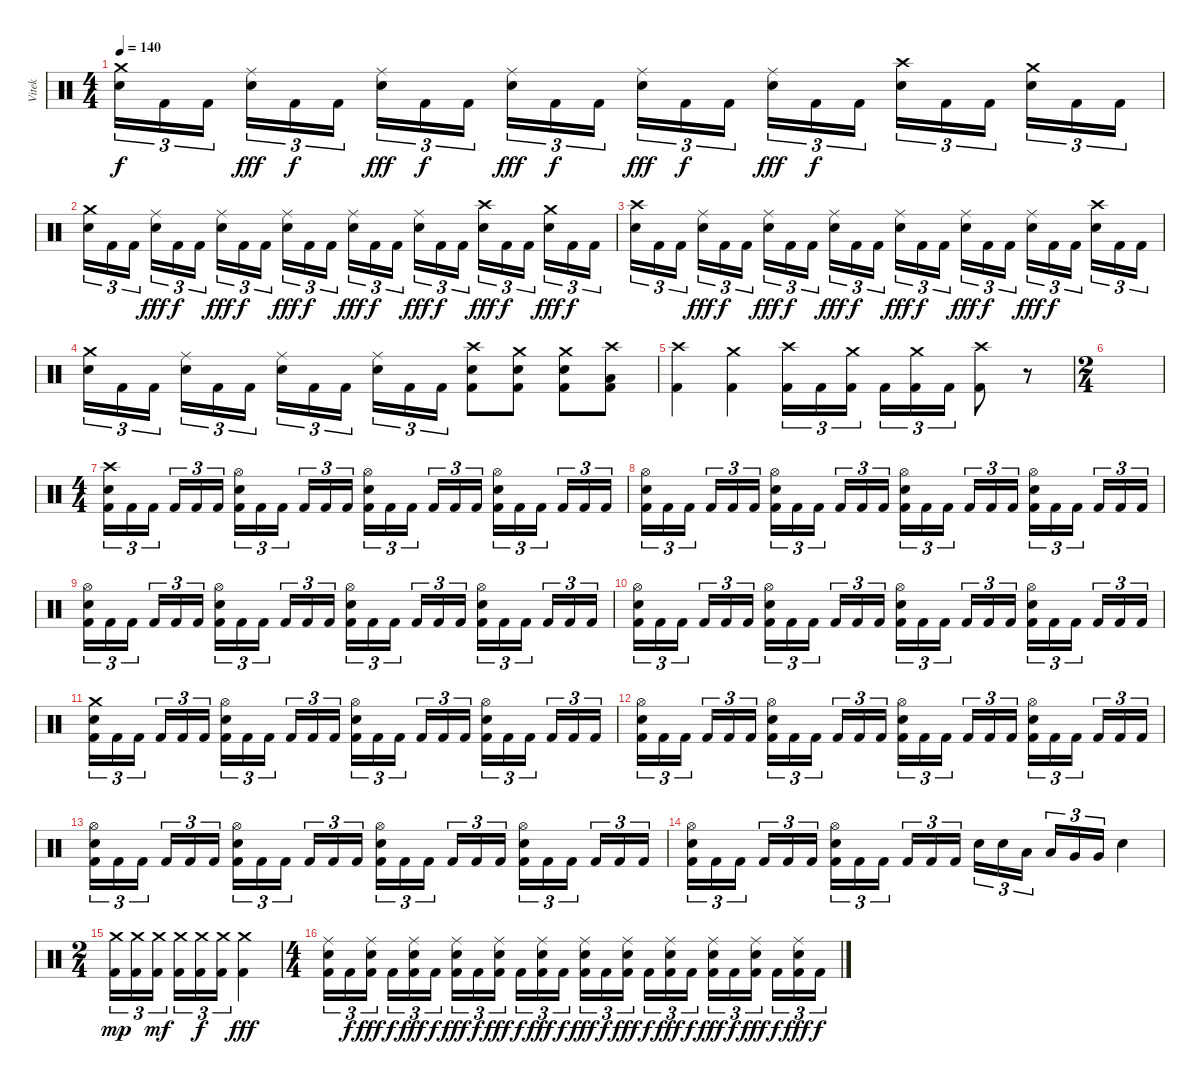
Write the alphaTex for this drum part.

\track ("Vitek" "Vitek") {instrument percussion}
\staff {score}
\articulation defaults
\ts (4 4)
\tempo 140
\clef neutral
\ks c
("Crash medium (hit)" "Electric Snare (hit)").16{tu (3 2) dy f} "Kick (hit) 2".16{tu (3 2)} "Kick (hit) 2".16{tu (3 2)} ("Ride (middle)" "Electric Snare (hit)").16{tu (3 2) dy fff} "Kick (hit) 2".16{tu (3 2) dy f} "Kick (hit) 2".16{tu (3 2)} ("Ride (middle)" "Electric Snare (hit)").16{tu (3 2) dy fff} "Kick (hit) 2".16{tu (3 2) dy f} "Kick (hit) 2".16{tu (3 2)} ("Ride (middle)" "Electric Snare (hit)").16{tu (3 2) dy fff} "Kick (hit) 2".16{tu (3 2) dy f} "Kick (hit) 2".16{tu (3 2)} ("Ride (middle)" "Electric Snare (hit)").16{tu (3 2) dy fff} "Kick (hit) 2".16{tu (3 2) dy f} "Kick (hit) 2".16{tu (3 2)} ("Ride (middle)" "Electric Snare (hit)").16{tu (3 2) dy fff} "Kick (hit) 2".16{tu (3 2) dy f} "Kick (hit) 2".16{tu (3 2)} ("Crash high (hit)" "Electric Snare (hit)").16{tu (3 2)} "Kick (hit) 2".16{tu (3 2)} "Kick (hit) 2".16{tu (3 2)} ("Crash medium (hit)" "Electric Snare (hit)").16{tu (3 2)} "Kick (hit) 2".16{tu (3 2)} "Kick (hit) 2".16{tu (3 2)} |
("Crash medium (hit)" "Electric Snare (hit)").16{tu (3 2)} "Kick (hit) 2".16{tu (3 2)} "Kick (hit) 2".16{tu (3 2)} ("Ride (middle)" "Electric Snare (hit)").16{tu (3 2) dy fff} "Kick (hit) 2".16{tu (3 2) dy f} "Kick (hit) 2".16{tu (3 2)} ("Ride (middle)" "Electric Snare (hit)").16{tu (3 2) dy fff} "Kick (hit) 2".16{tu (3 2) dy f} "Kick (hit) 2".16{tu (3 2)} ("Ride (middle)" "Electric Snare (hit)").16{tu (3 2) dy fff} "Kick (hit) 2".16{tu (3 2) dy f} "Kick (hit) 2".16{tu (3 2)} ("Ride (middle)" "Electric Snare (hit)").16{tu (3 2) dy fff} "Kick (hit) 2".16{tu (3 2) dy f} "Kick (hit) 2".16{tu (3 2)} ("Ride (middle)" "Electric Snare (hit)").16{tu (3 2) dy fff} "Kick (hit) 2".16{tu (3 2) dy f} "Kick (hit) 2".16{tu (3 2)} ("Crash high (hit)" "Electric Snare (hit)").16{tu (3 2) dy fff} "Kick (hit) 2".16{tu (3 2) dy f} "Kick (hit) 2".16{tu (3 2)} ("Crash medium (hit)" "Electric Snare (hit)").16{tu (3 2) dy fff} "Kick (hit) 2".16{tu (3 2) dy f} "Kick (hit) 2".16{tu (3 2)} |
("Crash high (hit)" "Electric Snare (hit)").16{tu (3 2)} "Kick (hit) 2".16{tu (3 2)} "Kick (hit) 2".16{tu (3 2)} ("Ride (middle)" "Electric Snare (hit)").16{tu (3 2) dy fff} "Kick (hit) 2".16{tu (3 2) dy f} "Kick (hit) 2".16{tu (3 2)} ("Ride (middle)" "Electric Snare (hit)").16{tu (3 2) dy fff} "Kick (hit) 2".16{tu (3 2) dy f} "Kick (hit) 2".16{tu (3 2)} ("Ride (middle)" "Electric Snare (hit)").16{tu (3 2) dy fff} "Kick (hit) 2".16{tu (3 2) dy f} "Kick (hit) 2".16{tu (3 2)} ("Ride (middle)" "Electric Snare (hit)").16{tu (3 2) dy fff} "Kick (hit) 2".16{tu (3 2) dy f} "Kick (hit) 2".16{tu (3 2)} ("Ride (middle)" "Electric Snare (hit)").16{tu (3 2) dy fff} "Kick (hit) 2".16{tu (3 2) dy f} "Kick (hit) 2".16{tu (3 2)} ("Ride (middle)" "Electric Snare (hit)").16{tu (3 2) dy fff} "Kick (hit) 2".16{tu (3 2) dy f} "Kick (hit) 2".16{tu (3 2)} ("Crash high (hit)" "Electric Snare (hit)").16{tu (3 2)} "Kick (hit) 2".16{tu (3 2)} "Kick (hit) 2".16{tu (3 2)} |
("Crash medium (hit)" "Electric Snare (hit)").16{tu (3 2)} "Kick (hit) 2".16{tu (3 2)} "Kick (hit) 2".16{tu (3 2)} ("Ride (middle)" "Electric Snare (hit)").16{tu (3 2)} "Kick (hit) 2".16{tu (3 2)} "Kick (hit) 2".16{tu (3 2)} ("Ride (middle)" "Electric Snare (hit)").16{tu (3 2)} "Kick (hit) 2".16{tu (3 2)} "Kick (hit) 2".16{tu (3 2)} ("Ride (middle)" "Electric Snare (hit)").16{tu (3 2)} "Kick (hit) 2".16{tu (3 2)} "Kick (hit) 2".16{tu (3 2)} ("Crash high (hit)" "Electric Snare (hit)" "Kick (hit) 2").8 ("Crash medium (hit)" "Electric Snare (hit)" "Kick (hit) 2").8 ("Crash medium (hit)" "Electric Snare (hit)" "Kick (hit) 2").8 ("Crash high (hit)" "Low Tom (hit)" "Kick (hit) 2").8 |
("Crash high (hit)" "Kick (hit) 2").4 ("Crash medium (hit)" "Kick (hit) 2").4 ("Crash high (hit)" "Kick (hit) 2").16{tu (3 2)} "Kick (hit) 2".16{tu (3 2)} ("Crash medium (hit)" "Kick (hit) 2").16{tu (3 2)} "Kick (hit) 2".16{tu (3 2)} ("Crash medium (hit)" "Kick (hit) 2").16{tu (3 2)} "Kick (hit) 2".16{tu (3 2)} ("Crash high (hit)" "Kick (hit) 2").8 r.8 |
\ts (2 4)
|
\ts (4 4)
("Crash high (hit)" "Electric Snare (hit)" "Kick (hit) 2").16{tu (3 2)} "Kick (hit) 2".16{tu (3 2)} "Kick (hit) 2".16{tu (3 2)} "Kick (hit) 2".16{tu (3 2)} "Kick (hit) 2".16{tu (3 2)} "Kick (hit) 2".16{tu (3 2)} ("Hi-Hat (open)" "Electric Snare (hit)" "Kick (hit) 2").16{tu (3 2)} "Kick (hit) 2".16{tu (3 2)} "Kick (hit) 2".16{tu (3 2)} "Kick (hit) 2".16{tu (3 2)} "Kick (hit) 2".16{tu (3 2)} "Kick (hit) 2".16{tu (3 2)} ("Hi-Hat (open)" "Electric Snare (hit)" "Kick (hit) 2").16{tu (3 2)} "Kick (hit) 2".16{tu (3 2)} "Kick (hit) 2".16{tu (3 2)} "Kick (hit) 2".16{tu (3 2)} "Kick (hit) 2".16{tu (3 2)} "Kick (hit) 2".16{tu (3 2)} ("Hi-Hat (open)" "Electric Snare (hit)" "Kick (hit) 2").16{tu (3 2)} "Kick (hit) 2".16{tu (3 2)} "Kick (hit) 2".16{tu (3 2)} "Kick (hit) 2".16{tu (3 2)} "Kick (hit) 2".16{tu (3 2)} "Kick (hit) 2".16{tu (3 2)} |
("Hi-Hat (open)" "Electric Snare (hit)" "Kick (hit) 2").16{tu (3 2)} "Kick (hit) 2".16{tu (3 2)} "Kick (hit) 2".16{tu (3 2)} "Kick (hit) 2".16{tu (3 2)} "Kick (hit) 2".16{tu (3 2)} "Kick (hit) 2".16{tu (3 2)} ("Hi-Hat (open)" "Electric Snare (hit)" "Kick (hit) 2").16{tu (3 2)} "Kick (hit) 2".16{tu (3 2)} "Kick (hit) 2".16{tu (3 2)} "Kick (hit) 2".16{tu (3 2)} "Kick (hit) 2".16{tu (3 2)} "Kick (hit) 2".16{tu (3 2)} ("Hi-Hat (open)" "Electric Snare (hit)" "Kick (hit) 2").16{tu (3 2)} "Kick (hit) 2".16{tu (3 2)} "Kick (hit) 2".16{tu (3 2)} "Kick (hit) 2".16{tu (3 2)} "Kick (hit) 2".16{tu (3 2)} "Kick (hit) 2".16{tu (3 2)} ("Hi-Hat (open)" "Electric Snare (hit)" "Kick (hit) 2").16{tu (3 2)} "Kick (hit) 2".16{tu (3 2)} "Kick (hit) 2".16{tu (3 2)} "Kick (hit) 2".16{tu (3 2)} "Kick (hit) 2".16{tu (3 2)} "Kick (hit) 2".16{tu (3 2)} |
("Hi-Hat (open)" "Electric Snare (hit)" "Kick (hit) 2").16{tu (3 2)} "Kick (hit) 2".16{tu (3 2)} "Kick (hit) 2".16{tu (3 2)} "Kick (hit) 2".16{tu (3 2)} "Kick (hit) 2".16{tu (3 2)} "Kick (hit) 2".16{tu (3 2)} ("Hi-Hat (open)" "Electric Snare (hit)" "Kick (hit) 2").16{tu (3 2)} "Kick (hit) 2".16{tu (3 2)} "Kick (hit) 2".16{tu (3 2)} "Kick (hit) 2".16{tu (3 2)} "Kick (hit) 2".16{tu (3 2)} "Kick (hit) 2".16{tu (3 2)} ("Hi-Hat (open)" "Electric Snare (hit)" "Kick (hit) 2").16{tu (3 2)} "Kick (hit) 2".16{tu (3 2)} "Kick (hit) 2".16{tu (3 2)} "Kick (hit) 2".16{tu (3 2)} "Kick (hit) 2".16{tu (3 2)} "Kick (hit) 2".16{tu (3 2)} ("Hi-Hat (open)" "Electric Snare (hit)" "Kick (hit) 2").16{tu (3 2)} "Kick (hit) 2".16{tu (3 2)} "Kick (hit) 2".16{tu (3 2)} "Kick (hit) 2".16{tu (3 2)} "Kick (hit) 2".16{tu (3 2)} "Kick (hit) 2".16{tu (3 2)} |
("Hi-Hat (open)" "Electric Snare (hit)" "Kick (hit) 2").16{tu (3 2)} "Kick (hit) 2".16{tu (3 2)} "Kick (hit) 2".16{tu (3 2)} "Kick (hit) 2".16{tu (3 2)} "Kick (hit) 2".16{tu (3 2)} "Kick (hit) 2".16{tu (3 2)} ("Hi-Hat (open)" "Electric Snare (hit)" "Kick (hit) 2").16{tu (3 2)} "Kick (hit) 2".16{tu (3 2)} "Kick (hit) 2".16{tu (3 2)} "Kick (hit) 2".16{tu (3 2)} "Kick (hit) 2".16{tu (3 2)} "Kick (hit) 2".16{tu (3 2)} ("Hi-Hat (open)" "Electric Snare (hit)" "Kick (hit) 2").16{tu (3 2)} "Kick (hit) 2".16{tu (3 2)} "Kick (hit) 2".16{tu (3 2)} "Kick (hit) 2".16{tu (3 2)} "Kick (hit) 2".16{tu (3 2)} "Kick (hit) 2".16{tu (3 2)} ("Hi-Hat (open)" "Electric Snare (hit)" "Kick (hit) 2").16{tu (3 2)} "Kick (hit) 2".16{tu (3 2)} "Kick (hit) 2".16{tu (3 2)} "Kick (hit) 2".16{tu (3 2)} "Kick (hit) 2".16{tu (3 2)} "Kick (hit) 2".16{tu (3 2)} |
("Crash medium (hit)" "Electric Snare (hit)" "Kick (hit) 2").16{tu (3 2)} "Kick (hit) 2".16{tu (3 2)} "Kick (hit) 2".16{tu (3 2)} "Kick (hit) 2".16{tu (3 2)} "Kick (hit) 2".16{tu (3 2)} "Kick (hit) 2".16{tu (3 2)} ("Hi-Hat (open)" "Electric Snare (hit)" "Kick (hit) 2").16{tu (3 2)} "Kick (hit) 2".16{tu (3 2)} "Kick (hit) 2".16{tu (3 2)} "Kick (hit) 2".16{tu (3 2)} "Kick (hit) 2".16{tu (3 2)} "Kick (hit) 2".16{tu (3 2)} ("Hi-Hat (open)" "Electric Snare (hit)" "Kick (hit) 2").16{tu (3 2)} "Kick (hit) 2".16{tu (3 2)} "Kick (hit) 2".16{tu (3 2)} "Kick (hit) 2".16{tu (3 2)} "Kick (hit) 2".16{tu (3 2)} "Kick (hit) 2".16{tu (3 2)} ("Hi-Hat (open)" "Electric Snare (hit)" "Kick (hit) 2").16{tu (3 2)} "Kick (hit) 2".16{tu (3 2)} "Kick (hit) 2".16{tu (3 2)} "Kick (hit) 2".16{tu (3 2)} "Kick (hit) 2".16{tu (3 2)} "Kick (hit) 2".16{tu (3 2)} |
("Hi-Hat (open)" "Electric Snare (hit)" "Kick (hit) 2").16{tu (3 2)} "Kick (hit) 2".16{tu (3 2)} "Kick (hit) 2".16{tu (3 2)} "Kick (hit) 2".16{tu (3 2)} "Kick (hit) 2".16{tu (3 2)} "Kick (hit) 2".16{tu (3 2)} ("Hi-Hat (open)" "Electric Snare (hit)" "Kick (hit) 2").16{tu (3 2)} "Kick (hit) 2".16{tu (3 2)} "Kick (hit) 2".16{tu (3 2)} "Kick (hit) 2".16{tu (3 2)} "Kick (hit) 2".16{tu (3 2)} "Kick (hit) 2".16{tu (3 2)} ("Hi-Hat (open)" "Electric Snare (hit)" "Kick (hit) 2").16{tu (3 2)} "Kick (hit) 2".16{tu (3 2)} "Kick (hit) 2".16{tu (3 2)} "Kick (hit) 2".16{tu (3 2)} "Kick (hit) 2".16{tu (3 2)} "Kick (hit) 2".16{tu (3 2)} ("Hi-Hat (open)" "Electric Snare (hit)" "Kick (hit) 2").16{tu (3 2)} "Kick (hit) 2".16{tu (3 2)} "Kick (hit) 2".16{tu (3 2)} "Kick (hit) 2".16{tu (3 2)} "Kick (hit) 2".16{tu (3 2)} "Kick (hit) 2".16{tu (3 2)} |
("Hi-Hat (open)" "Electric Snare (hit)" "Kick (hit) 2").16{tu (3 2)} "Kick (hit) 2".16{tu (3 2)} "Kick (hit) 2".16{tu (3 2)} "Kick (hit) 2".16{tu (3 2)} "Kick (hit) 2".16{tu (3 2)} "Kick (hit) 2".16{tu (3 2)} ("Hi-Hat (open)" "Electric Snare (hit)" "Kick (hit) 2").16{tu (3 2)} "Kick (hit) 2".16{tu (3 2)} "Kick (hit) 2".16{tu (3 2)} "Kick (hit) 2".16{tu (3 2)} "Kick (hit) 2".16{tu (3 2)} "Kick (hit) 2".16{tu (3 2)} ("Hi-Hat (open)" "Electric Snare (hit)" "Kick (hit) 2").16{tu (3 2)} "Kick (hit) 2".16{tu (3 2)} "Kick (hit) 2".16{tu (3 2)} "Kick (hit) 2".16{tu (3 2)} "Kick (hit) 2".16{tu (3 2)} "Kick (hit) 2".16{tu (3 2)} ("Hi-Hat (open)" "Electric Snare (hit)" "Kick (hit) 2").16{tu (3 2)} "Kick (hit) 2".16{tu (3 2)} "Kick (hit) 2".16{tu (3 2)} "Kick (hit) 2".16{tu (3 2)} "Kick (hit) 2".16{tu (3 2)} "Kick (hit) 2".16{tu (3 2)} |
("Hi-Hat (open)" "Electric Snare (hit)" "Kick (hit) 2").16{tu (3 2)} "Kick (hit) 2".16{tu (3 2)} "Kick (hit) 2".16{tu (3 2)} "Kick (hit) 2".16{tu (3 2)} "Kick (hit) 2".16{tu (3 2)} "Kick (hit) 2".16{tu (3 2)} ("Hi-Hat (open)" "Electric Snare (hit)" "Kick (hit) 2").16{tu (3 2)} "Kick (hit) 2".16{tu (3 2)} "Kick (hit) 2".16{tu (3 2)} "Kick (hit) 2".16{tu (3 2)} "Kick (hit) 2".16{tu (3 2)} "Kick (hit) 2".16{tu (3 2)} "Electric Snare (hit)".16{tu (3 2)} "Electric Snare (hit)".16{tu (3 2)} "Low Tom (hit)".16{tu (3 2)} "Low Tom (hit)".16{tu (3 2)} "Very Low Tom (hit)".16{tu (3 2)} "Very Low Tom (hit)".16{tu (3 2)} "Electric Snare (hit)".4 |
\ts (2 4)
("Crash medium (hit)" "Kick (hit) 2").16{tu (3 2) dy mp} ("Crash medium (hit)" "Kick (hit) 2").16{tu (3 2)} ("Crash medium (hit)" "Kick (hit) 2").16{tu (3 2) dy mf} ("Crash medium (hit)" "Kick (hit) 2").16{tu (3 2)} ("Crash medium (hit)" "Kick (hit) 2").16{tu (3 2) dy f} ("Crash medium (hit)" "Kick (hit) 2").16{tu (3 2)} ("Crash medium (hit)" "Kick (hit) 2").4{dy fff} |
\ts (4 4)
("Ride (middle)" "Electric Snare (hit)" "Kick (hit) 2").16{tu (3 2)} "Kick (hit) 2".16{tu (3 2) dy f} ("Ride (middle)" "Electric Snare (hit)" "Kick (hit) 2").16{tu (3 2) dy fff} "Kick (hit) 2".16{tu (3 2) dy f} ("Ride (middle)" "Electric Snare (hit)" "Kick (hit) 2").16{tu (3 2) dy fff} "Kick (hit) 2".16{tu (3 2) dy f} ("Ride (middle)" "Electric Snare (hit)" "Kick (hit) 2").16{tu (3 2) dy fff} "Kick (hit) 2".16{tu (3 2) dy f} ("Ride (middle)" "Electric Snare (hit)" "Kick (hit) 2").16{tu (3 2) dy fff} "Kick (hit) 2".16{tu (3 2) dy f} ("Ride (middle)" "Electric Snare (hit)" "Kick (hit) 2").16{tu (3 2) dy fff} "Kick (hit) 2".16{tu (3 2) dy f} ("Ride (middle)" "Electric Snare (hit)" "Kick (hit) 2").16{tu (3 2) dy fff} "Kick (hit) 2".16{tu (3 2) dy f} ("Ride (middle)" "Electric Snare (hit)" "Kick (hit) 2").16{tu (3 2) dy fff} "Kick (hit) 2".16{tu (3 2) dy f} ("Ride (middle)" "Electric Snare (hit)" "Kick (hit) 2").16{tu (3 2) dy fff} "Kick (hit) 2".16{tu (3 2) dy f} ("Ride (middle)" "Electric Snare (hit)" "Kick (hit) 2").16{tu (3 2) dy fff} "Kick (hit) 2".16{tu (3 2) dy f} ("Ride (middle)" "Electric Snare (hit)" "Kick (hit) 2").16{tu (3 2) dy fff} "Kick (hit) 2".16{tu (3 2) dy f} ("Ride (middle)" "Electric Snare (hit)" "Kick (hit) 2").16{tu (3 2) dy fff} "Kick (hit) 2".16{tu (3 2) dy f}
